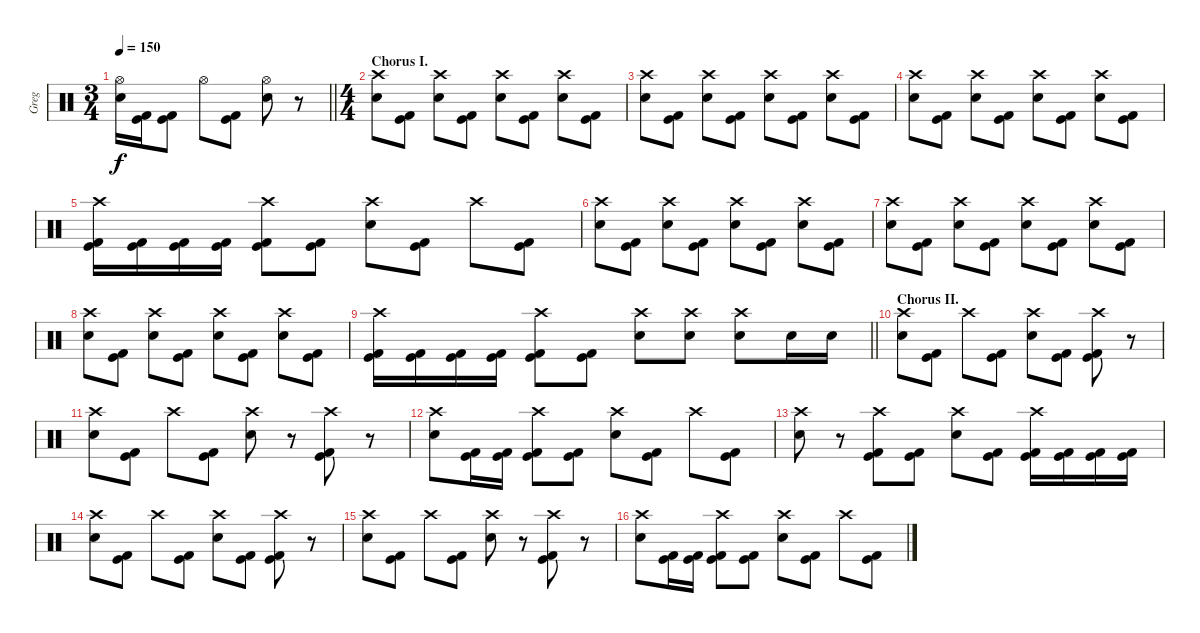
\track ("Greg" "Greg") {instrument percussion}
\staff {score}
\articulation defaults
\ts (3 4)
\tempo 150
\clef neutral
\barLineRight lightlight
\ks c
("Hi-Hat (open)" "Snare (hit) 2").16{dy f} ("Kick (hit)" "Kick (hit) 2").16 ("Kick (hit)" "Kick (hit) 2").8 "Hi-Hat (open)".8 ("Kick (hit)" "Kick (hit) 2").8 ("Hi-Hat (open)" "Snare (hit) 2").8 r.8 |
\ts (4 4)
\section ("" "Chorus I.")
("Crash high (hit)" "Snare (hit) 2").8 ("Kick (hit)" "Kick (hit) 2").8 ("Crash high (hit)" "Snare (hit) 2").8 ("Kick (hit)" "Kick (hit) 2").8 ("Crash high (hit)" "Snare (hit) 2").8 ("Kick (hit)" "Kick (hit) 2").8 ("Crash high (hit)" "Snare (hit) 2").8 ("Kick (hit)" "Kick (hit) 2").8 |
("Crash high (hit)" "Snare (hit) 2").8 ("Kick (hit)" "Kick (hit) 2").8 ("Crash high (hit)" "Snare (hit) 2").8 ("Kick (hit)" "Kick (hit) 2").8 ("Crash high (hit)" "Snare (hit) 2").8 ("Kick (hit)" "Kick (hit) 2").8 ("Crash high (hit)" "Snare (hit) 2").8 ("Kick (hit)" "Kick (hit) 2").8 |
("Crash high (hit)" "Snare (hit) 2").8 ("Kick (hit)" "Kick (hit) 2").8 ("Crash high (hit)" "Snare (hit) 2").8 ("Kick (hit)" "Kick (hit) 2").8 ("Crash high (hit)" "Snare (hit) 2").8 ("Kick (hit)" "Kick (hit) 2").8 ("Crash high (hit)" "Snare (hit) 2").8 ("Kick (hit)" "Kick (hit) 2").8 |
("Crash high (hit)" "Kick (hit)" "Kick (hit) 2").16 ("Kick (hit)" "Kick (hit) 2").16 ("Kick (hit)" "Kick (hit) 2").16 ("Kick (hit)" "Kick (hit) 2").16 ("Crash high (hit)" "Kick (hit)" "Kick (hit) 2").8 ("Kick (hit)" "Kick (hit) 2").8 ("Crash high (hit)" "Snare (hit) 2").8 ("Kick (hit)" "Kick (hit) 2").8 "Crash high (hit)".8 ("Kick (hit)" "Kick (hit) 2").8 |
("Crash high (hit)" "Snare (hit) 2").8 ("Kick (hit)" "Kick (hit) 2").8 ("Crash high (hit)" "Snare (hit) 2").8 ("Kick (hit)" "Kick (hit) 2").8 ("Crash high (hit)" "Snare (hit) 2").8 ("Kick (hit)" "Kick (hit) 2").8 ("Crash high (hit)" "Snare (hit) 2").8 ("Kick (hit)" "Kick (hit) 2").8 |
("Crash high (hit)" "Snare (hit) 2").8 ("Kick (hit)" "Kick (hit) 2").8 ("Crash high (hit)" "Snare (hit) 2").8 ("Kick (hit)" "Kick (hit) 2").8 ("Crash high (hit)" "Snare (hit) 2").8 ("Kick (hit)" "Kick (hit) 2").8 ("Crash high (hit)" "Snare (hit) 2").8 ("Kick (hit)" "Kick (hit) 2").8 |
("Crash high (hit)" "Snare (hit) 2").8 ("Kick (hit)" "Kick (hit) 2").8 ("Crash high (hit)" "Snare (hit) 2").8 ("Kick (hit)" "Kick (hit) 2").8 ("Crash high (hit)" "Snare (hit) 2").8 ("Kick (hit)" "Kick (hit) 2").8 ("Crash high (hit)" "Snare (hit) 2").8 ("Kick (hit)" "Kick (hit) 2").8 |
\barLineRight lightlight
("Crash high (hit)" "Kick (hit)" "Kick (hit) 2").16 ("Kick (hit)" "Kick (hit) 2").16 ("Kick (hit)" "Kick (hit) 2").16 ("Kick (hit)" "Kick (hit) 2").16 ("Crash high (hit)" "Kick (hit)" "Kick (hit) 2").8 ("Kick (hit)" "Kick (hit) 2").8 ("Crash high (hit)" "Snare (hit) 2").8 ("Crash high (hit)" "Snare (hit) 2").8 ("Crash high (hit)" "Snare (hit) 2").8 "Snare (hit) 2".16 "Snare (hit)".16 |
\section ("" "Chorus II.")
("Crash high (hit)" "Snare (hit) 2").8 ("Kick (hit)" "Kick (hit) 2").8 "Crash high (hit)".8 ("Kick (hit)" "Kick (hit) 2").8 ("Crash high (hit)" "Snare (hit) 2").8 ("Kick (hit)" "Kick (hit) 2").8 ("Crash high (hit)" "Kick (hit)" "Kick (hit) 2").8 r.8 |
("Crash high (hit)" "Snare (hit) 2").8 ("Kick (hit)" "Kick (hit) 2").8 "Crash high (hit)".8 ("Kick (hit)" "Kick (hit) 2").8 ("Crash high (hit)" "Snare (hit) 2").8 r.8 ("Crash high (hit)" "Kick (hit)" "Kick (hit) 2").8 r.8 |
("Crash high (hit)" "Snare (hit) 2").8 ("Kick (hit)" "Kick (hit) 2").16 ("Kick (hit)" "Kick (hit) 2").16 ("Crash high (hit)" "Kick (hit)" "Kick (hit) 2").8 ("Kick (hit)" "Kick (hit) 2").8 ("Crash high (hit)" "Snare (hit) 2").8 ("Kick (hit)" "Kick (hit) 2").8 "Crash high (hit)".8 ("Kick (hit)" "Kick (hit) 2").8 |
("Crash high (hit)" "Snare (hit) 2").8 r.8 ("Crash high (hit)" "Kick (hit)" "Kick (hit) 2").8 ("Kick (hit)" "Kick (hit) 2").8 ("Crash high (hit)" "Snare (hit) 2").8 ("Kick (hit)" "Kick (hit) 2").8 ("Crash high (hit)" "Kick (hit)" "Kick (hit) 2").16 ("Kick (hit)" "Kick (hit) 2").16 ("Kick (hit)" "Kick (hit) 2").16 ("Kick (hit)" "Kick (hit) 2").16 |
("Crash high (hit)" "Snare (hit) 2").8 ("Kick (hit)" "Kick (hit) 2").8 "Crash high (hit)".8 ("Kick (hit)" "Kick (hit) 2").8 ("Crash high (hit)" "Snare (hit) 2").8 ("Kick (hit)" "Kick (hit) 2").8 ("Crash high (hit)" "Kick (hit)" "Kick (hit) 2").8 r.8 |
("Crash high (hit)" "Snare (hit) 2").8 ("Kick (hit)" "Kick (hit) 2").8 "Crash high (hit)".8 ("Kick (hit)" "Kick (hit) 2").8 ("Crash high (hit)" "Snare (hit) 2").8 r.8 ("Crash high (hit)" "Kick (hit)" "Kick (hit) 2").8 r.8 |
("Crash high (hit)" "Snare (hit) 2").8 ("Kick (hit)" "Kick (hit) 2").16 ("Kick (hit)" "Kick (hit) 2").16 ("Crash high (hit)" "Kick (hit)" "Kick (hit) 2").8 ("Kick (hit)" "Kick (hit) 2").8 ("Crash high (hit)" "Snare (hit) 2").8 ("Kick (hit)" "Kick (hit) 2").8 "Crash high (hit)".8 ("Kick (hit)" "Kick (hit) 2").8
